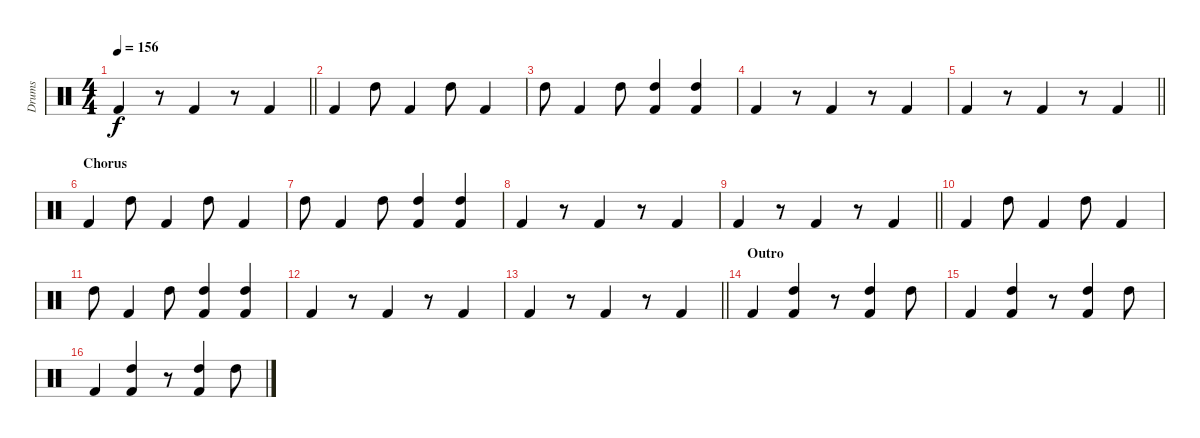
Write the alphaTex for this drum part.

\track ("Drums" "Drums") {instrument percussion}
\staff
\articulation defaults
\ts (4 4)
\tempo 156
\clef neutral
\barLineRight lightlight
\ks c "Kick (hit) 2".4{dy f}
r.8 "Kick (hit) 2".4 r.8 "Kick (hit) 2".4 |
"Kick (hit) 2".4 "High Tom (hit)".8 "Kick (hit) 2".4 "High Tom (hit)".8 "Kick (hit) 2".4 |
"High Tom (hit)".8 "Kick (hit) 2".4 "High Tom (hit)".8 ("High Tom (hit)" "Kick (hit) 2").4 ("High Tom (hit)" "Kick (hit) 2").4 |
"Kick (hit) 2".4 r.8 "Kick (hit) 2".4 r.8 "Kick (hit) 2".4 |
\barLineRight lightlight "Kick (hit) 2".4
r.8 "Kick (hit) 2".4 r.8 "Kick (hit) 2".4 |
\section ("" "Chorus")
"Kick (hit) 2".4 "High Tom (hit)".8 "Kick (hit) 2".4 "High Tom (hit)".8 "Kick (hit) 2".4 |
"High Tom (hit)".8 "Kick (hit) 2".4 "High Tom (hit)".8 ("High Tom (hit)" "Kick (hit) 2").4 ("High Tom (hit)" "Kick (hit) 2").4 |
"Kick (hit) 2".4 r.8 "Kick (hit) 2".4 r.8 "Kick (hit) 2".4 |
\barLineRight lightlight "Kick (hit) 2".4
r.8 "Kick (hit) 2".4 r.8 "Kick (hit) 2".4 |
"Kick (hit) 2".4 "High Tom (hit)".8 "Kick (hit) 2".4 "High Tom (hit)".8 "Kick (hit) 2".4 |
"High Tom (hit)".8 "Kick (hit) 2".4 "High Tom (hit)".8 ("High Tom (hit)" "Kick (hit) 2").4 ("High Tom (hit)" "Kick (hit) 2").4 |
"Kick (hit) 2".4 r.8 "Kick (hit) 2".4 r.8 "Kick (hit) 2".4 |
\barLineRight lightlight "Kick (hit) 2".4
r.8 "Kick (hit) 2".4 r.8 "Kick (hit) 2".4 |
\section ("" "Outro")
"Kick (hit) 2".4 ("High Tom (hit)" "Kick (hit) 2").4 r.8 ("High Tom (hit)" "Kick (hit) 2").4 "High Tom (hit)".8 |
"Kick (hit) 2".4 ("High Tom (hit)" "Kick (hit) 2").4 r.8 ("High Tom (hit)" "Kick (hit) 2").4 "High Tom (hit)".8 |
"Kick (hit) 2".4 ("High Tom (hit)" "Kick (hit) 2").4 r.8 ("High Tom (hit)" "Kick (hit) 2").4 "High Tom (hit)".8
